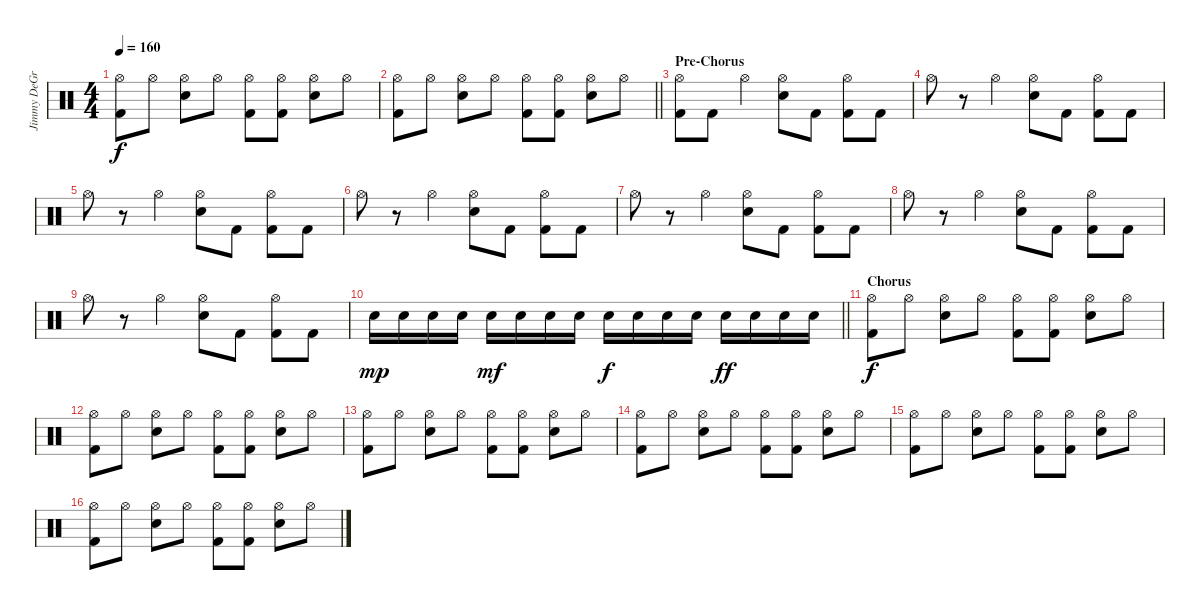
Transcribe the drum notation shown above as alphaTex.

\track ("Jimmy DeGrasso" "Jimmy DeGr") {instrument percussion}
\staff {score}
\articulation defaults
\ts (4 4)
\tempo 160
\clef neutral
\ks c
("Hi-Hat (open)" "Kick (hit) 2").8{dy f} "Hi-Hat (open)".8 ("Hi-Hat (open)" "Snare (hit) 2").8 "Hi-Hat (open)".8 ("Hi-Hat (open)" "Kick (hit) 2").8 ("Hi-Hat (open)" "Kick (hit) 2").8 ("Hi-Hat (open)" "Snare (hit) 2").8 "Hi-Hat (open)".8 |
\barLineRight lightlight
("Hi-Hat (open)" "Kick (hit) 2").8 "Hi-Hat (open)".8 ("Hi-Hat (open)" "Snare (hit) 2").8 "Hi-Hat (open)".8 ("Hi-Hat (open)" "Kick (hit) 2").8 ("Hi-Hat (open)" "Kick (hit) 2").8 ("Hi-Hat (open)" "Snare (hit) 2").8 "Hi-Hat (open)".8 |
\section ("" "Pre-Chorus")
("Hi-Hat (open)" "Kick (hit) 2").8 "Kick (hit) 2".8 "Hi-Hat (open)".4 ("Hi-Hat (open)" "Snare (hit) 2").8 "Kick (hit) 2".8 ("Hi-Hat (open)" "Kick (hit) 2").8 "Kick (hit) 2".8 |
"Hi-Hat (open)".8 r.8 "Hi-Hat (open)".4 ("Hi-Hat (open)" "Snare (hit) 2").8 "Kick (hit) 2".8 ("Hi-Hat (open)" "Kick (hit) 2").8 "Kick (hit) 2".8 |
"Hi-Hat (open)".8 r.8 "Hi-Hat (open)".4 ("Hi-Hat (open)" "Snare (hit) 2").8 "Kick (hit) 2".8 ("Hi-Hat (open)" "Kick (hit) 2").8 "Kick (hit) 2".8 |
"Hi-Hat (open)".8 r.8 "Hi-Hat (open)".4 ("Hi-Hat (open)" "Snare (hit) 2").8 "Kick (hit) 2".8 ("Hi-Hat (open)" "Kick (hit) 2").8 "Kick (hit) 2".8 |
"Hi-Hat (open)".8 r.8 "Hi-Hat (open)".4 ("Hi-Hat (open)" "Snare (hit) 2").8 "Kick (hit) 2".8 ("Hi-Hat (open)" "Kick (hit) 2").8 "Kick (hit) 2".8 |
"Hi-Hat (open)".8 r.8 "Hi-Hat (open)".4 ("Hi-Hat (open)" "Snare (hit) 2").8 "Kick (hit) 2".8 ("Hi-Hat (open)" "Kick (hit) 2").8 "Kick (hit) 2".8 |
"Hi-Hat (open)".8 r.8 "Hi-Hat (open)".4 ("Hi-Hat (open)" "Snare (hit) 2").8 "Kick (hit) 2".8 ("Hi-Hat (open)" "Kick (hit) 2").8 "Kick (hit) 2".8 |
\barLineRight lightlight "Snare (hit) 2".16{dy mp} "Snare (hit) 2".16 "Snare (hit) 2".16 "Snare (hit) 2".16 "Snare (hit) 2".16{dy mf} "Snare (hit) 2".16 "Snare (hit) 2".16 "Snare (hit) 2".16 "Snare (hit) 2".16{dy f} "Snare (hit) 2".16 "Snare (hit) 2".16 "Snare (hit) 2".16 "Snare (hit) 2".16{dy ff} "Snare (hit) 2".16 "Snare (hit) 2".16 "Snare (hit) 2".16
|
\section ("" "Chorus")
("Hi-Hat (open)" "Kick (hit) 2").8{dy f} "Hi-Hat (open)".8 ("Hi-Hat (open)" "Snare (hit) 2").8 "Hi-Hat (open)".8 ("Hi-Hat (open)" "Kick (hit) 2").8 ("Hi-Hat (open)" "Kick (hit) 2").8 ("Hi-Hat (open)" "Snare (hit) 2").8 "Hi-Hat (open)".8 |
("Hi-Hat (open)" "Kick (hit) 2").8 "Hi-Hat (open)".8 ("Hi-Hat (open)" "Snare (hit) 2").8 "Hi-Hat (open)".8 ("Hi-Hat (open)" "Kick (hit) 2").8 ("Hi-Hat (open)" "Kick (hit) 2").8 ("Hi-Hat (open)" "Snare (hit) 2").8 "Hi-Hat (open)".8 |
("Hi-Hat (open)" "Kick (hit) 2").8 "Hi-Hat (open)".8 ("Hi-Hat (open)" "Snare (hit) 2").8 "Hi-Hat (open)".8 ("Hi-Hat (open)" "Kick (hit) 2").8 ("Hi-Hat (open)" "Kick (hit) 2").8 ("Hi-Hat (open)" "Snare (hit) 2").8 "Hi-Hat (open)".8 |
("Hi-Hat (open)" "Kick (hit) 2").8 "Hi-Hat (open)".8 ("Hi-Hat (open)" "Snare (hit) 2").8 "Hi-Hat (open)".8 ("Hi-Hat (open)" "Kick (hit) 2").8 ("Hi-Hat (open)" "Kick (hit) 2").8 ("Hi-Hat (open)" "Snare (hit) 2").8 "Hi-Hat (open)".8 |
("Hi-Hat (open)" "Kick (hit) 2").8 "Hi-Hat (open)".8 ("Hi-Hat (open)" "Snare (hit) 2").8 "Hi-Hat (open)".8 ("Hi-Hat (open)" "Kick (hit) 2").8 ("Hi-Hat (open)" "Kick (hit) 2").8 ("Hi-Hat (open)" "Snare (hit) 2").8 "Hi-Hat (open)".8 |
("Hi-Hat (open)" "Kick (hit) 2").8 "Hi-Hat (open)".8 ("Hi-Hat (open)" "Snare (hit) 2").8 "Hi-Hat (open)".8 ("Hi-Hat (open)" "Kick (hit) 2").8 ("Hi-Hat (open)" "Kick (hit) 2").8 ("Hi-Hat (open)" "Snare (hit) 2").8 "Hi-Hat (open)".8
